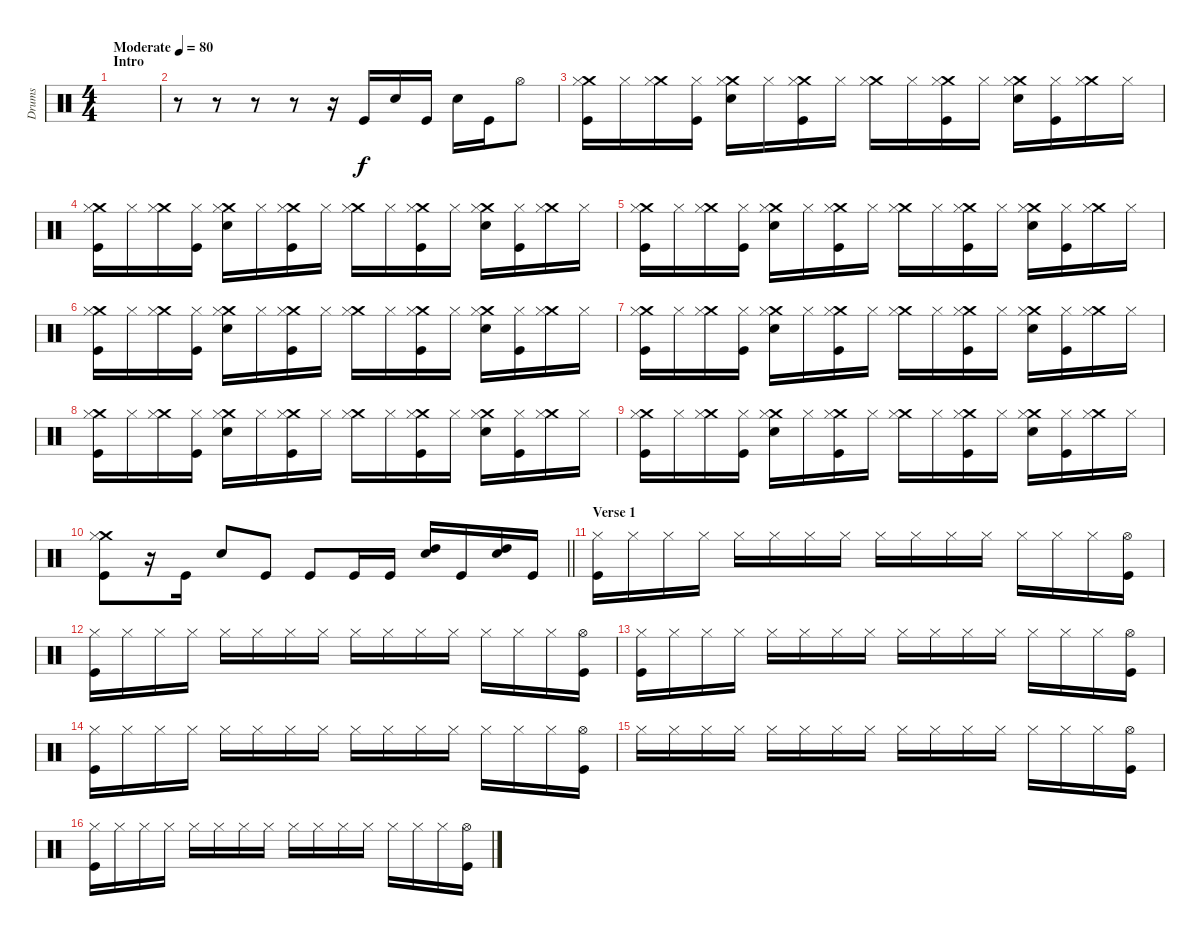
\track ("Drums" "Drums") {instrument percussion}
\staff {score}
\articulation defaults
\ts (4 4)
\section ("" "Intro")
\tempo (80 "Moderate")
\clef neutral
\ks c
|
r.8 r.8 r.8 r.8 r.16 "Kick (hit)".16 "Snare (hit) 2".16 "Kick (hit)".16 "Snare (hit) 2".16 "Kick (hit)".16 "Hi-Hat (open)".8 |
("Kick (hit)" "Crash medium (hit)" "Hi-Hat (closed)").16 "Hi-Hat (closed)".16 ("Crash medium (hit)" "Hi-Hat (closed)").16 ("Kick (hit)" "Hi-Hat (closed)").16 ("Snare (hit) 2" "Crash medium (hit)" "Hi-Hat (closed)").16 "Hi-Hat (closed)".16 ("Kick (hit)" "Crash medium (hit)" "Hi-Hat (closed)").16 "Hi-Hat (closed)".16 ("Crash medium (hit)" "Hi-Hat (closed)").16 "Hi-Hat (closed)".16 ("Kick (hit)" "Crash medium (hit)" "Hi-Hat (closed)").16 "Hi-Hat (closed)".16 ("Snare (hit) 2" "Crash medium (hit)" "Hi-Hat (closed)").16 ("Kick (hit)" "Hi-Hat (closed)").16 ("Crash medium (hit)" "Hi-Hat (closed)").16 "Hi-Hat (closed)".16 |
("Kick (hit)" "Crash medium (hit)" "Hi-Hat (closed)").16 "Hi-Hat (closed)".16 ("Crash medium (hit)" "Hi-Hat (closed)").16 ("Kick (hit)" "Hi-Hat (closed)").16 ("Snare (hit) 2" "Crash medium (hit)" "Hi-Hat (closed)").16 "Hi-Hat (closed)".16 ("Kick (hit)" "Crash medium (hit)" "Hi-Hat (closed)").16 "Hi-Hat (closed)".16 ("Crash medium (hit)" "Hi-Hat (closed)").16 "Hi-Hat (closed)".16 ("Kick (hit)" "Crash medium (hit)" "Hi-Hat (closed)").16 "Hi-Hat (closed)".16 ("Snare (hit) 2" "Crash medium (hit)" "Hi-Hat (closed)").16 ("Kick (hit)" "Hi-Hat (closed)").16 ("Crash medium (hit)" "Hi-Hat (closed)").16 "Hi-Hat (closed)".16 |
("Kick (hit)" "Crash medium (hit)" "Hi-Hat (closed)").16 "Hi-Hat (closed)".16 ("Crash medium (hit)" "Hi-Hat (closed)").16 ("Kick (hit)" "Hi-Hat (closed)").16 ("Snare (hit) 2" "Crash medium (hit)" "Hi-Hat (closed)").16 "Hi-Hat (closed)".16 ("Kick (hit)" "Crash medium (hit)" "Hi-Hat (closed)").16 "Hi-Hat (closed)".16 ("Crash medium (hit)" "Hi-Hat (closed)").16 "Hi-Hat (closed)".16 ("Kick (hit)" "Crash medium (hit)" "Hi-Hat (closed)").16 "Hi-Hat (closed)".16 ("Snare (hit) 2" "Crash medium (hit)" "Hi-Hat (closed)").16 ("Kick (hit)" "Hi-Hat (closed)").16 ("Crash medium (hit)" "Hi-Hat (closed)").16 "Hi-Hat (closed)".16 |
("Kick (hit)" "Crash medium (hit)" "Hi-Hat (closed)").16 "Hi-Hat (closed)".16 ("Crash medium (hit)" "Hi-Hat (closed)").16 ("Kick (hit)" "Hi-Hat (closed)").16 ("Snare (hit) 2" "Crash medium (hit)" "Hi-Hat (closed)").16 "Hi-Hat (closed)".16 ("Kick (hit)" "Crash medium (hit)" "Hi-Hat (closed)").16 "Hi-Hat (closed)".16 ("Crash medium (hit)" "Hi-Hat (closed)").16 "Hi-Hat (closed)".16 ("Kick (hit)" "Crash medium (hit)" "Hi-Hat (closed)").16 "Hi-Hat (closed)".16 ("Snare (hit) 2" "Crash medium (hit)" "Hi-Hat (closed)").16 ("Kick (hit)" "Hi-Hat (closed)").16 ("Crash medium (hit)" "Hi-Hat (closed)").16 "Hi-Hat (closed)".16 |
("Kick (hit)" "Crash medium (hit)" "Hi-Hat (closed)").16 "Hi-Hat (closed)".16 ("Crash medium (hit)" "Hi-Hat (closed)").16 ("Kick (hit)" "Hi-Hat (closed)").16 ("Snare (hit) 2" "Crash medium (hit)" "Hi-Hat (closed)").16 "Hi-Hat (closed)".16 ("Kick (hit)" "Crash medium (hit)" "Hi-Hat (closed)").16 "Hi-Hat (closed)".16 ("Crash medium (hit)" "Hi-Hat (closed)").16 "Hi-Hat (closed)".16 ("Kick (hit)" "Crash medium (hit)" "Hi-Hat (closed)").16 "Hi-Hat (closed)".16 ("Snare (hit) 2" "Crash medium (hit)" "Hi-Hat (closed)").16 ("Kick (hit)" "Hi-Hat (closed)").16 ("Crash medium (hit)" "Hi-Hat (closed)").16 "Hi-Hat (closed)".16 |
("Kick (hit)" "Crash medium (hit)" "Hi-Hat (closed)").16 "Hi-Hat (closed)".16 ("Crash medium (hit)" "Hi-Hat (closed)").16 ("Kick (hit)" "Hi-Hat (closed)").16 ("Snare (hit) 2" "Crash medium (hit)" "Hi-Hat (closed)").16 "Hi-Hat (closed)".16 ("Kick (hit)" "Crash medium (hit)" "Hi-Hat (closed)").16 "Hi-Hat (closed)".16 ("Crash medium (hit)" "Hi-Hat (closed)").16 "Hi-Hat (closed)".16 ("Kick (hit)" "Crash medium (hit)" "Hi-Hat (closed)").16 "Hi-Hat (closed)".16 ("Snare (hit) 2" "Crash medium (hit)" "Hi-Hat (closed)").16 ("Kick (hit)" "Hi-Hat (closed)").16 ("Crash medium (hit)" "Hi-Hat (closed)").16 "Hi-Hat (closed)".16 |
("Kick (hit)" "Crash medium (hit)" "Hi-Hat (closed)").16 "Hi-Hat (closed)".16 ("Crash medium (hit)" "Hi-Hat (closed)").16 ("Kick (hit)" "Hi-Hat (closed)").16 ("Snare (hit) 2" "Crash medium (hit)" "Hi-Hat (closed)").16 "Hi-Hat (closed)".16 ("Kick (hit)" "Crash medium (hit)" "Hi-Hat (closed)").16 "Hi-Hat (closed)".16 ("Crash medium (hit)" "Hi-Hat (closed)").16 "Hi-Hat (closed)".16 ("Kick (hit)" "Crash medium (hit)" "Hi-Hat (closed)").16 "Hi-Hat (closed)".16 ("Snare (hit) 2" "Crash medium (hit)" "Hi-Hat (closed)").16 ("Kick (hit)" "Hi-Hat (closed)").16 ("Crash medium (hit)" "Hi-Hat (closed)").16 "Hi-Hat (closed)".16 |
\barLineRight lightlight
("Kick (hit)" "Crash medium (hit)" "Hi-Hat (closed)").8 r.16 "Kick (hit)".16 "Snare (hit) 2".8 "Kick (hit)".8 "Kick (hit)".8 "Kick (hit)".16 "Kick (hit)".16 ("High Tom (hit)" "Snare (hit) 2").16 "Kick (hit)".16 ("High Tom (hit)" "Snare (hit) 2").16 "Kick (hit)".16 |
\section ("" "Verse 1")
("Hi-Hat (closed)" "Kick (hit)").16 "Hi-Hat (closed)".16 "Hi-Hat (closed)".16 "Hi-Hat (closed)".16 "Hi-Hat (closed)".16 "Hi-Hat (closed)".16 "Hi-Hat (closed)".16 "Hi-Hat (closed)".16 "Hi-Hat (closed)".16 "Hi-Hat (closed)".16 "Hi-Hat (closed)".16 "Hi-Hat (closed)".16 "Hi-Hat (closed)".16 "Hi-Hat (closed)".16 "Hi-Hat (closed)".16 ("Hi-Hat (open)" "Kick (hit)").16 |
("Hi-Hat (closed)" "Kick (hit)").16 "Hi-Hat (closed)".16 "Hi-Hat (closed)".16 "Hi-Hat (closed)".16 "Hi-Hat (closed)".16 "Hi-Hat (closed)".16 "Hi-Hat (closed)".16 "Hi-Hat (closed)".16 "Hi-Hat (closed)".16 "Hi-Hat (closed)".16 "Hi-Hat (closed)".16 "Hi-Hat (closed)".16 "Hi-Hat (closed)".16 "Hi-Hat (closed)".16 "Hi-Hat (closed)".16 ("Hi-Hat (open)" "Kick (hit)").16 |
("Hi-Hat (closed)" "Kick (hit)").16 "Hi-Hat (closed)".16 "Hi-Hat (closed)".16 "Hi-Hat (closed)".16 "Hi-Hat (closed)".16 "Hi-Hat (closed)".16 "Hi-Hat (closed)".16 "Hi-Hat (closed)".16 "Hi-Hat (closed)".16 "Hi-Hat (closed)".16 "Hi-Hat (closed)".16 "Hi-Hat (closed)".16 "Hi-Hat (closed)".16 "Hi-Hat (closed)".16 "Hi-Hat (closed)".16 ("Hi-Hat (open)" "Kick (hit)").16 |
("Hi-Hat (closed)" "Kick (hit)").16 "Hi-Hat (closed)".16 "Hi-Hat (closed)".16 "Hi-Hat (closed)".16 "Hi-Hat (closed)".16 "Hi-Hat (closed)".16 "Hi-Hat (closed)".16 "Hi-Hat (closed)".16 "Hi-Hat (closed)".16 "Hi-Hat (closed)".16 "Hi-Hat (closed)".16 "Hi-Hat (closed)".16 "Hi-Hat (closed)".16 "Hi-Hat (closed)".16 "Hi-Hat (closed)".16 ("Hi-Hat (open)" "Kick (hit)").16 |
"Hi-Hat (closed)".16 "Hi-Hat (closed)".16 "Hi-Hat (closed)".16 "Hi-Hat (closed)".16 "Hi-Hat (closed)".16 "Hi-Hat (closed)".16 "Hi-Hat (closed)".16 "Hi-Hat (closed)".16 "Hi-Hat (closed)".16 "Hi-Hat (closed)".16 "Hi-Hat (closed)".16 "Hi-Hat (closed)".16 "Hi-Hat (closed)".16 "Hi-Hat (closed)".16 "Hi-Hat (closed)".16 ("Hi-Hat (open)" "Kick (hit)").16 |
("Hi-Hat (closed)" "Kick (hit)").16 "Hi-Hat (closed)".16 "Hi-Hat (closed)".16 "Hi-Hat (closed)".16 "Hi-Hat (closed)".16 "Hi-Hat (closed)".16 "Hi-Hat (closed)".16 "Hi-Hat (closed)".16 "Hi-Hat (closed)".16 "Hi-Hat (closed)".16 "Hi-Hat (closed)".16 "Hi-Hat (closed)".16 "Hi-Hat (closed)".16 "Hi-Hat (closed)".16 "Hi-Hat (closed)".16 ("Hi-Hat (open)" "Kick (hit)").16
